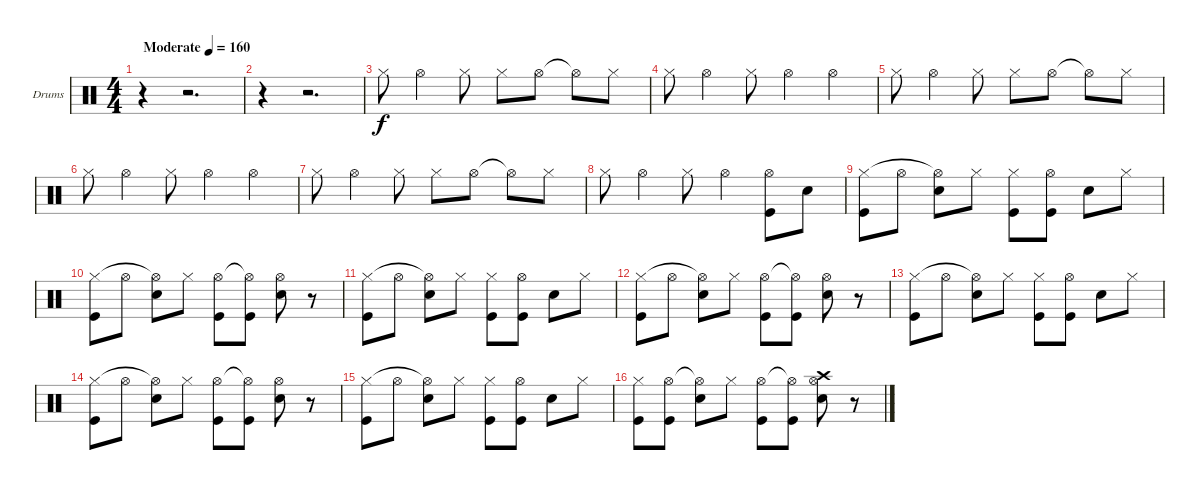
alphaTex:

\bracketExtendMode groupsimilarinstruments
\firstSystemTrackNameOrientation horizontal
\otherSystemsTrackNameOrientation horizontal
\track ("Drumkit" "Drums") {instrument percussion}
\staff {score}
\articulation defaults
\ts (4 4)
\beaming (8 2 2 2 2)
\tempo (160 "Moderate")
\clef neutral
\ks c
r.4{dy f} r.2{d} |
r.4 r.2{d} |
"Hi-Hat (closed)".8 "Hi-Hat (open)".4 "Hi-Hat (closed)".8 "Hi-Hat (closed)".8 "Hi-Hat (open)".8 "Hi-Hat (open)"{t}.8 "Hi-Hat (closed)".8 |
"Hi-Hat (closed)".8 "Hi-Hat (open)".4 "Hi-Hat (closed)".8 "Hi-Hat (open)".4 "Hi-Hat (open)".4 |
"Hi-Hat (closed)".8 "Hi-Hat (open)".4 "Hi-Hat (closed)".8 "Hi-Hat (closed)".8 "Hi-Hat (open)".8 "Hi-Hat (open)"{t}.8 "Hi-Hat (closed)".8 |
"Hi-Hat (closed)".8 "Hi-Hat (open)".4 "Hi-Hat (closed)".8 "Hi-Hat (open)".4 "Hi-Hat (open)".4 |
"Hi-Hat (closed)".8 "Hi-Hat (open)".4 "Hi-Hat (closed)".8 "Hi-Hat (closed)".8 "Hi-Hat (open)".8 "Hi-Hat (open)"{t}.8 "Hi-Hat (closed)".8 |
"Hi-Hat (closed)".8 "Hi-Hat (open)".4 "Hi-Hat (closed)".8 "Hi-Hat (open)".4 ("Kick (hit)" "Hi-Hat (open)").8 "Snare (hit) 2".8 |
("Kick (hit)" "Hi-Hat (closed)").8 "Hi-Hat (open)".8 ("Snare (hit) 2" "Hi-Hat (open)"{t}).8 "Hi-Hat (closed)".8 ("Kick (hit)" "Hi-Hat (closed)").8 ("Kick (hit)" "Hi-Hat (open)").8 "Snare (hit) 2".8 "Hi-Hat (closed)".8 |
("Kick (hit)" "Hi-Hat (closed)").8 "Hi-Hat (open)".8 ("Snare (hit) 2" "Hi-Hat (open)"{t}).8 "Hi-Hat (closed)".8 ("Kick (hit)" "Hi-Hat (open)").8 ("Kick (hit)" "Hi-Hat (open)"{t}).8 ("Snare (hit) 2" "Hi-Hat (open)").8 r.8 |
("Kick (hit)" "Hi-Hat (closed)").8 "Hi-Hat (open)".8 ("Snare (hit) 2" "Hi-Hat (open)"{t}).8 "Hi-Hat (closed)".8 ("Kick (hit)" "Hi-Hat (closed)").8 ("Kick (hit)" "Hi-Hat (open)").8 "Snare (hit) 2".8 "Hi-Hat (closed)".8 |
("Kick (hit)" "Hi-Hat (closed)").8 "Hi-Hat (open)".8 ("Snare (hit) 2" "Hi-Hat (open)"{t}).8 "Hi-Hat (closed)".8 ("Kick (hit)" "Hi-Hat (open)").8 ("Kick (hit)" "Hi-Hat (open)"{t}).8 ("Snare (hit) 2" "Hi-Hat (open)").8 r.8 |
("Kick (hit)" "Hi-Hat (closed)").8 "Hi-Hat (open)".8 ("Snare (hit) 2" "Hi-Hat (open)"{t}).8 "Hi-Hat (closed)".8 ("Kick (hit)" "Hi-Hat (closed)").8 ("Kick (hit)" "Hi-Hat (open)").8 "Snare (hit) 2".8 "Hi-Hat (closed)".8 |
("Kick (hit)" "Hi-Hat (closed)").8 "Hi-Hat (open)".8 ("Snare (hit) 2" "Hi-Hat (open)"{t}).8 "Hi-Hat (closed)".8 ("Kick (hit)" "Hi-Hat (open)").8 ("Kick (hit)" "Hi-Hat (open)"{t}).8 ("Snare (hit) 2" "Hi-Hat (open)").8 r.8 |
("Kick (hit)" "Hi-Hat (closed)").8 "Hi-Hat (open)".8 ("Snare (hit) 2" "Hi-Hat (open)"{t}).8 "Hi-Hat (closed)".8 ("Kick (hit)" "Hi-Hat (closed)").8 ("Kick (hit)" "Hi-Hat (open)").8 "Snare (hit) 2".8 "Hi-Hat (closed)".8 |
("Kick (hit)" "Hi-Hat (closed)").8 ("Kick (hit)" "Hi-Hat (open)").8 ("Snare (hit) 2" "Hi-Hat (open)"{t}).8 "Hi-Hat (closed)".8 ("Kick (hit)" "Hi-Hat (open)").8 ("Kick (hit)" "Hi-Hat (open)"{t}).8 ("Snare (hit) 2" "Hi-Hat (open)" "Crash high (hit)").8 r.8
